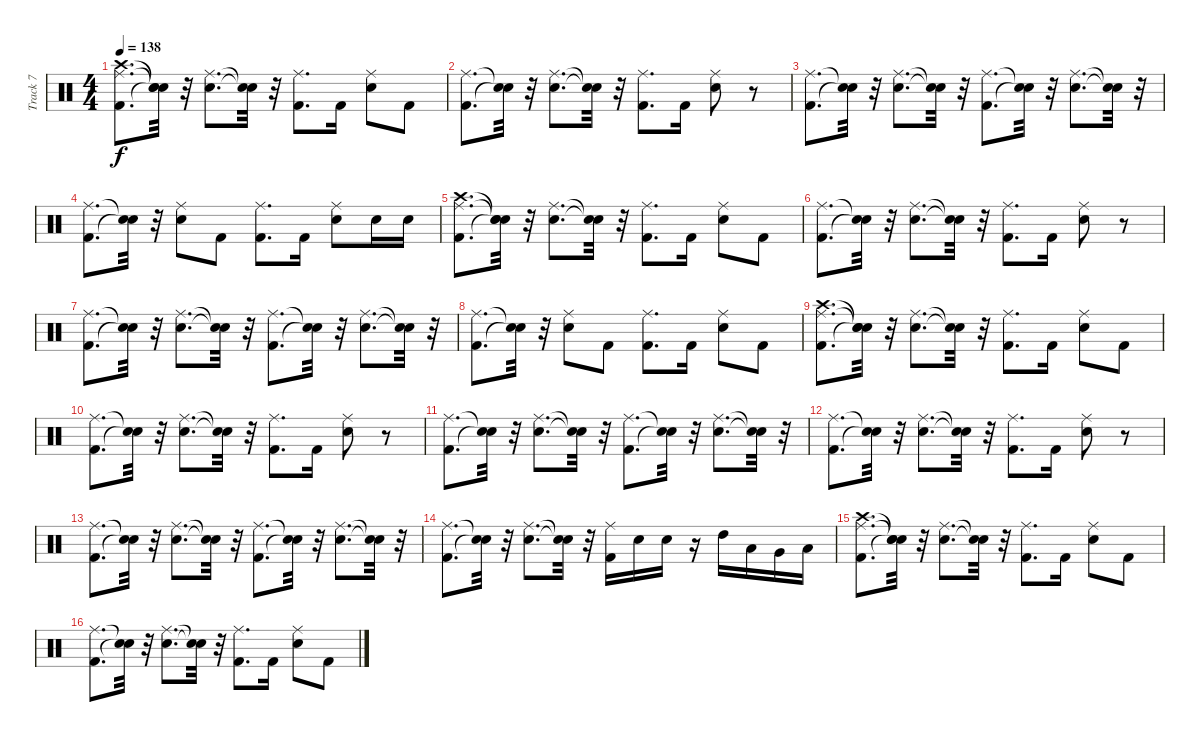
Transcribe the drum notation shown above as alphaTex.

\track ("Track 7" "Track 7") {instrument percussion}
\staff {score}
\articulation defaults
\ts (4 4)
\tempo 138
\clef neutral
\ks c
("Kick (hit) 2" "Crash high (hit)" "Ride (middle)").8{d dy f} ("Snare (hit)"{t} "Snare (hit)"{t} "Snare (hit)"{t}).32 r.32 ("Snare (hit) 2" "Ride (middle)").8{d} ("Snare (hit)"{t} "Snare (hit)"{t}).32 r.32 ("Kick (hit) 2" "Ride (middle)").8{d} "Kick (hit) 2".16 ("Snare (hit) 2" "Ride (middle)").8 "Kick (hit) 2".8 |
("Kick (hit) 2" "Ride (middle)").8{d} ("Snare (hit)"{t} "Snare (hit)"{t}).32 r.32 ("Snare (hit) 2" "Ride (middle)").8{d} ("Snare (hit)"{t} "Snare (hit)"{t}).32 r.32 ("Kick (hit) 2" "Ride (middle)").8{d} "Kick (hit) 2".16 ("Snare (hit) 2" "Ride (middle)").8 r.8 |
("Kick (hit) 2" "Ride (middle)").8{d} ("Snare (hit)"{t} "Snare (hit)"{t}).32 r.32 ("Snare (hit) 2" "Ride (middle)").8{d} ("Snare (hit)"{t} "Snare (hit)"{t}).32 r.32 ("Kick (hit) 2" "Ride (middle)").8{d} ("Snare (hit)"{t} "Snare (hit)"{t}).32 r.32 ("Snare (hit) 2" "Ride (middle)").8{d} ("Snare (hit)"{t} "Snare (hit)"{t}).32 r.32 |
("Kick (hit) 2" "Ride (middle)").8{d} ("Snare (hit)"{t} "Snare (hit)"{t}).32 r.32 ("Snare (hit) 2" "Ride (middle)").8 "Kick (hit) 2".8 ("Kick (hit) 2" "Ride (middle)").8{d} "Kick (hit) 2".16 ("Snare (hit) 2" "Ride (middle)").8 "Snare (hit) 2".16 "Snare (hit) 2".16 |
("Kick (hit) 2" "Crash high (hit)" "Ride (middle)").8{d} ("Snare (hit)"{t} "Snare (hit)"{t} "Snare (hit)"{t}).32 r.32 ("Snare (hit) 2" "Ride (middle)").8{d} ("Snare (hit)"{t} "Snare (hit)"{t}).32 r.32 ("Kick (hit) 2" "Ride (middle)").8{d} "Kick (hit) 2".16 ("Snare (hit) 2" "Ride (middle)").8 "Kick (hit) 2".8 |
("Kick (hit) 2" "Ride (middle)").8{d} ("Snare (hit)"{t} "Snare (hit)"{t}).32 r.32 ("Snare (hit) 2" "Ride (middle)").8{d} ("Snare (hit)"{t} "Snare (hit)"{t}).32 r.32 ("Kick (hit) 2" "Ride (middle)").8{d} "Kick (hit) 2".16 ("Snare (hit) 2" "Ride (middle)").8 r.8 |
("Kick (hit) 2" "Ride (middle)").8{d} ("Snare (hit)"{t} "Snare (hit)"{t}).32 r.32 ("Snare (hit) 2" "Ride (middle)").8{d} ("Snare (hit)"{t} "Snare (hit)"{t}).32 r.32 ("Kick (hit) 2" "Ride (middle)").8{d} ("Snare (hit)"{t} "Snare (hit)"{t}).32 r.32 ("Snare (hit) 2" "Ride (middle)").8{d} ("Snare (hit)"{t} "Snare (hit)"{t}).32 r.32 |
("Kick (hit) 2" "Ride (middle)").8{d} ("Snare (hit)"{t} "Snare (hit)"{t}).32 r.32 ("Snare (hit) 2" "Ride (middle)").8 "Kick (hit) 2".8 ("Kick (hit) 2" "Ride (middle)").8{d} "Kick (hit) 2".16 ("Snare (hit) 2" "Ride (middle)").8 "Kick (hit) 2".8 |
("Kick (hit) 2" "Crash high (hit)" "Ride (middle)").8{d} ("Snare (hit)"{t} "Snare (hit)"{t} "Snare (hit)"{t}).32 r.32 ("Snare (hit) 2" "Ride (middle)").8{d} ("Snare (hit)"{t} "Snare (hit)"{t}).32 r.32 ("Kick (hit) 2" "Ride (middle)").8{d} "Kick (hit) 2".16 ("Snare (hit) 2" "Ride (middle)").8 "Kick (hit) 2".8 |
("Kick (hit) 2" "Ride (middle)").8{d} ("Snare (hit)"{t} "Snare (hit)"{t}).32 r.32 ("Snare (hit) 2" "Ride (middle)").8{d} ("Snare (hit)"{t} "Snare (hit)"{t}).32 r.32 ("Kick (hit) 2" "Ride (middle)").8{d} "Kick (hit) 2".16 ("Snare (hit) 2" "Ride (middle)").8 r.8 |
("Kick (hit) 2" "Ride (middle)").8{d} ("Snare (hit)"{t} "Snare (hit)"{t}).32 r.32 ("Snare (hit) 2" "Ride (middle)").8{d} ("Snare (hit)"{t} "Snare (hit)"{t}).32 r.32 ("Kick (hit) 2" "Ride (middle)").8{d} ("Snare (hit)"{t} "Snare (hit)"{t}).32 r.32 ("Snare (hit) 2" "Ride (middle)").8{d} ("Snare (hit)"{t} "Snare (hit)"{t}).32 r.32 |
("Kick (hit) 2" "Ride (middle)").8{d} ("Snare (hit)"{t} "Snare (hit)"{t}).32 r.32 ("Snare (hit) 2" "Ride (middle)").8{d} ("Snare (hit)"{t} "Snare (hit)"{t}).32 r.32 ("Kick (hit) 2" "Ride (middle)").8{d} "Kick (hit) 2".16 ("Snare (hit) 2" "Ride (middle)").8 r.8 |
("Kick (hit) 2" "Ride (middle)").8{d} ("Snare (hit)"{t} "Snare (hit)"{t}).32 r.32 ("Snare (hit) 2" "Ride (middle)").8{d} ("Snare (hit)"{t} "Snare (hit)"{t}).32 r.32 ("Kick (hit) 2" "Ride (middle)").8{d} ("Snare (hit)"{t} "Snare (hit)"{t}).32 r.32 ("Snare (hit) 2" "Ride (middle)").8{d} ("Snare (hit)"{t} "Snare (hit)"{t}).32 r.32 |
("Kick (hit) 2" "Ride (middle)").8{d} ("Snare (hit)"{t} "Snare (hit)"{t}).32 r.32 ("Snare (hit) 2" "Ride (middle)").8{d} ("Snare (hit)"{t} "Snare (hit)"{t}).32 r.32 ("Kick (hit) 2" "Ride (middle)").16 "Snare (hit) 2".16 "Snare (hit) 2".16 r.16 "High Tom (hit)".16 "Low Tom (hit)".16 "Very Low Tom (hit)".16 "Low Floor Tom (hit)".16 |
("Kick (hit) 2" "Crash high (hit)" "Ride (middle)").8{d} ("Snare (hit)"{t} "Snare (hit)"{t} "Snare (hit)"{t}).32 r.32 ("Snare (hit) 2" "Ride (middle)").8{d} ("Snare (hit)"{t} "Snare (hit)"{t}).32 r.32 ("Kick (hit) 2" "Ride (middle)").8{d} "Kick (hit) 2".16 ("Snare (hit) 2" "Ride (middle)").8 "Kick (hit) 2".8 |
("Kick (hit) 2" "Ride (middle)").8{d} ("Snare (hit)"{t} "Snare (hit)"{t}).32 r.32 ("Snare (hit) 2" "Ride (middle)").8{d} ("Snare (hit)"{t} "Snare (hit)"{t}).32 r.32 ("Kick (hit) 2" "Ride (middle)").8{d} "Kick (hit) 2".16 ("Snare (hit) 2" "Ride (middle)").8 "Kick (hit) 2".8
